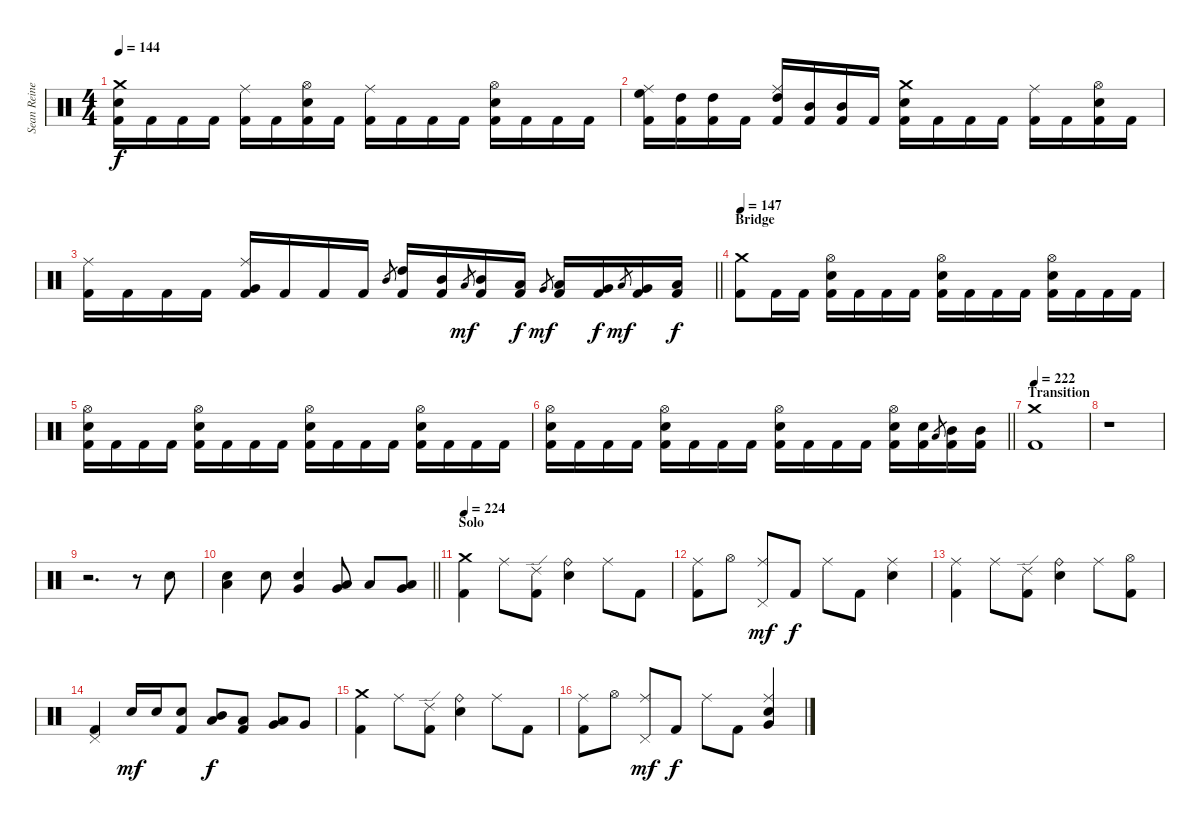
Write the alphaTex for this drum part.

\track ("Sean Reinert" "Sean Reine") {instrument percussion}
\staff {score}
\articulation defaults
\ts (4 4)
\tempo 144
\clef neutral
\ks c
("Crash medium (hit)" "Snare (hit) 2" "Kick (hit) 2").16{dy f} "Kick (hit) 2".16 "Kick (hit) 2".16 "Kick (hit) 2".16 ("Ride (middle)" "Kick (hit) 2").16 "Kick (hit) 2".16 ("Hi-Hat (open)" "Snare (hit) 2" "Kick (hit) 2").16 "Kick (hit) 2".16 ("Ride (middle)" "Kick (hit) 2").16 "Kick (hit) 2".16 "Kick (hit) 2".16 "Kick (hit) 2".16 ("Hi-Hat (open)" "Snare (hit) 2" "Kick (hit) 2").16 "Kick (hit) 2".16 "Kick (hit) 2".16 "Kick (hit) 2".16 |
("Ride (middle)" "High Floor Tom (hit)" "Kick (hit) 2").16 ("High Tom (hit)" "Kick (hit) 2").16 ("High Tom (hit)" "Kick (hit) 2").16 "Kick (hit) 2".16 ("Ride (middle)" "High Tom (hit)" "Kick (hit) 2").16 ("Mid Tom (hit)" "Kick (hit) 2").16 ("Mid Tom (hit)" "Kick (hit) 2").16 "Kick (hit) 2".16 ("Crash medium (hit)" "Snare (hit) 2" "Kick (hit) 2").16 "Kick (hit) 2".16 "Kick (hit) 2".16 "Kick (hit) 2".16 ("Ride (middle)" "Kick (hit) 2").16 "Kick (hit) 2".16 ("Hi-Hat (open)" "Snare (hit) 2" "Kick (hit) 2").16 "Kick (hit) 2".16 |
\barLineRight lightlight
("Ride (middle)" "Kick (hit) 2").16 "Kick (hit) 2".16 "Kick (hit) 2".16 "Kick (hit) 2".16 ("Ride (middle)" "Very Low Tom (hit)" "Kick (hit) 2").16 "Kick (hit) 2".16 "Kick (hit) 2".16 "Kick (hit) 2".16 "Mid Tom (hit)".8{gr} ("High Tom (hit)" "Kick (hit) 2").16 ("Mid Tom (hit)" "Kick (hit) 2").16 "Low Tom (hit)".8{gr dy mf} ("Mid Tom (hit)" "Kick (hit) 2").16 ("Low Tom (hit)" "Kick (hit) 2").16{dy f} "Very Low Tom (hit)".8{gr dy mf} ("Low Tom (hit)" "Kick (hit) 2").16 ("Very Low Tom (hit)" "Kick (hit) 2").16{dy f} "Low Floor Tom (hit)".8{gr dy mf} ("Very Low Tom (hit)" "Kick (hit) 2").16 ("Low Floor Tom (hit)" "Kick (hit) 2").16{dy f} |
\section ("" "Bridge")
\tempo 147
("Crash medium (hit)" "Kick (hit) 2").8 "Kick (hit) 2".16 "Kick (hit) 2".16 ("Hi-Hat (open)" "Snare (hit) 2" "Kick (hit) 2").16 "Kick (hit) 2".16 "Kick (hit) 2".16 "Kick (hit) 2".16 ("Hi-Hat (open)" "Snare (hit) 2" "Kick (hit) 2").16 "Kick (hit) 2".16 "Kick (hit) 2".16 "Kick (hit) 2".16 ("Hi-Hat (open)" "Snare (hit) 2" "Kick (hit) 2").16 "Kick (hit) 2".16 "Kick (hit) 2".16 "Kick (hit) 2".16 |
("Hi-Hat (open)" "Snare (hit) 2" "Kick (hit) 2").16 "Kick (hit) 2".16 "Kick (hit) 2".16 "Kick (hit) 2".16 ("Hi-Hat (open)" "Snare (hit) 2" "Kick (hit) 2").16 "Kick (hit) 2".16 "Kick (hit) 2".16 "Kick (hit) 2".16 ("Hi-Hat (open)" "Snare (hit) 2" "Kick (hit) 2").16 "Kick (hit) 2".16 "Kick (hit) 2".16 "Kick (hit) 2".16 ("Hi-Hat (open)" "Snare (hit) 2" "Kick (hit) 2").16 "Kick (hit) 2".16 "Kick (hit) 2".16 "Kick (hit) 2".16 |
\barLineRight lightlight
("Hi-Hat (open)" "Snare (hit) 2" "Kick (hit) 2").16 "Kick (hit) 2".16 "Kick (hit) 2".16 "Kick (hit) 2".16 ("Hi-Hat (open)" "Snare (hit) 2" "Kick (hit) 2").16 "Kick (hit) 2".16 "Kick (hit) 2".16 "Kick (hit) 2".16 ("Hi-Hat (open)" "Snare (hit) 2" "Kick (hit) 2").16 "Kick (hit) 2".16 "Kick (hit) 2".16 "Kick (hit) 2".16 ("Hi-Hat (open)" "Snare (hit) 2" "Kick (hit) 2").16 ("Snare (hit) 2" "Kick (hit) 2").16 "Low Tom (hit)".8{gr} ("Mid Tom (hit)" "Kick (hit) 2").16 ("Mid Tom (hit)" "Kick (hit) 2").16 |
\section ("" "Transition")
\tempo 222
("Crash medium (hit)" "Kick (hit) 2").1 |
r.1 |
r.2{d} r.8 "Snare (hit) 2".8 |
\barLineRight lightlight
("Low Tom (hit)" "Snare (hit) 2").4 "Snare (hit) 2".8 ("Very Low Tom (hit)" "Snare (hit) 2").4 ("Low Tom (hit)" "Very Low Tom (hit)").8 "Low Tom (hit)".8 ("Very Low Tom (hit)" "Low Floor Tom (hit)").8 |
\section ("" "Solo")
\tempo 224
("Crash medium (hit)" "Kick (hit) 2").4 "Ride (middle)".8 ("Ride (edge) 2" "Kick (hit) 2").8 ("Ride (bell)" "Snare (hit) 2").4 "Ride (middle)".8 "Kick (hit) 2".8 |
("Ride (middle)" "Kick (hit) 2").8 "Hi-Hat (open)".8 ("Pedal Hi-Hat (hit)" "Ride (middle)").8{dy mf} "Kick (hit) 2".8{dy f} "Ride (middle)".8 "Kick (hit) 2".8 ("Ride (middle)" "Snare (hit) 2").4 |
("Ride (middle)" "Kick (hit) 2").4 "Ride (middle)".8 ("Ride (edge) 2" "Kick (hit) 2").8 ("Ride (bell)" "Snare (hit) 2").4 "Ride (middle)".8 ("Hi-Hat (open)" "Kick (hit) 2").8 |
("Pedal Hi-Hat (hit)" "Kick (hit) 2").4 "Snare (hit) 2".16{dy mf} "Snare (hit) 2".16 ("Snare (hit) 2" "Kick (hit) 2").8 ("Low Tom (hit)" "Mid Tom (hit)").8{dy f} ("Low Tom (hit)" "Kick (hit) 2").8 ("Very Low Tom (hit)" "Low Tom (hit)").8 "Very Low Tom (hit)".8 |
("Crash medium (hit)" "Kick (hit) 2").4 "Ride (middle)".8 ("Ride (edge) 2" "Kick (hit) 2").8 ("Ride (bell)" "Snare (hit) 2").4 "Ride (middle)".8 "Kick (hit) 2".8 |
("Ride (middle)" "Kick (hit) 2").8 "Hi-Hat (open)".8 ("Pedal Hi-Hat (hit)" "Ride (middle)").8{dy mf} "Kick (hit) 2".8{dy f} "Ride (middle)".8 "Kick (hit) 2".8 ("Ride (middle)" "Very Low Tom (hit)" "Snare (hit) 2").4
